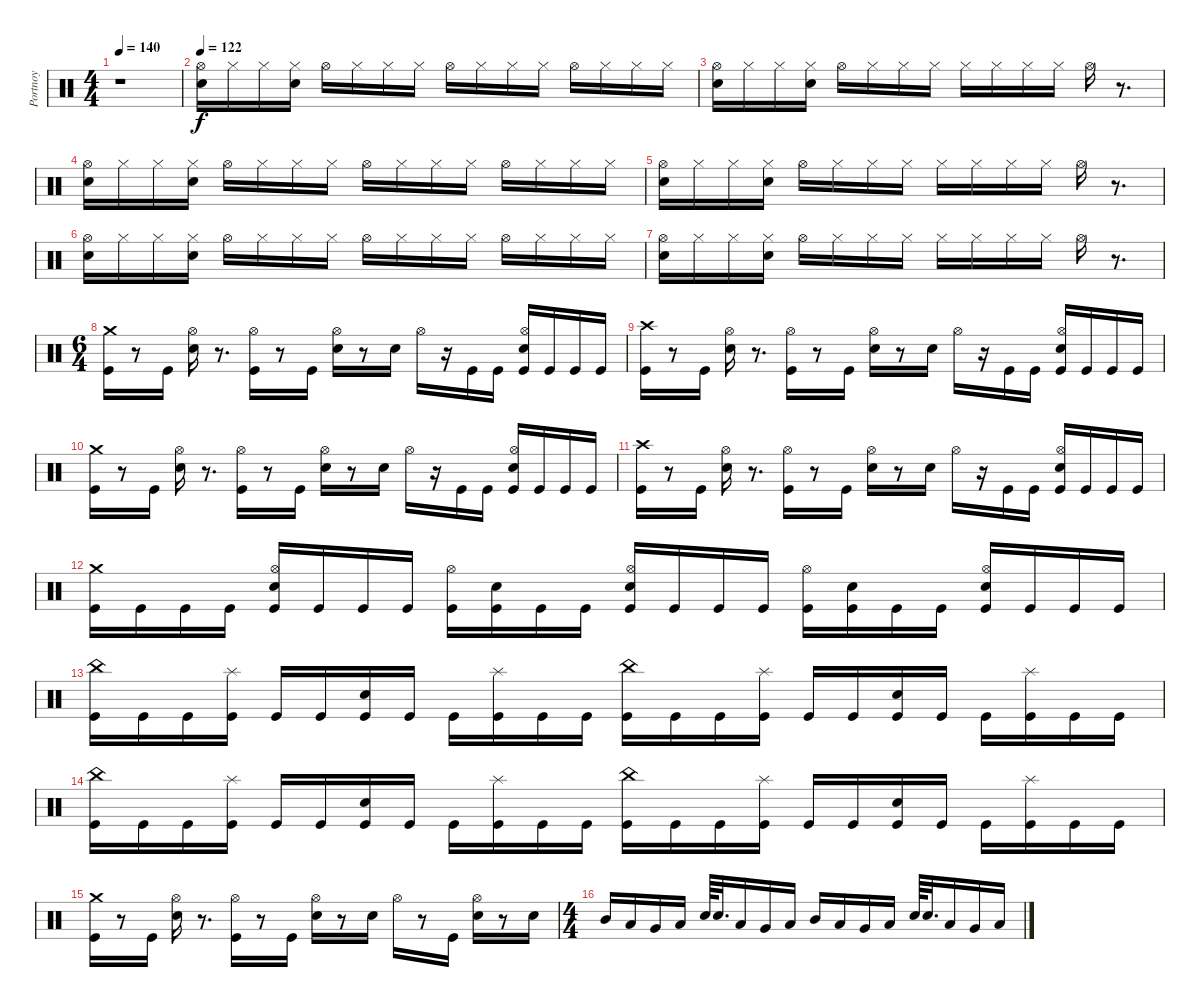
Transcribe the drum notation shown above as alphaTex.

\track ("Portnoy" "Portnoy") {instrument percussion}
\staff {score}
\articulation defaults
\ts (4 4)
\tempo 140
\clef neutral
\ks c
r.1{dy f} |
\tempo 122
("Metronome (bell)" "Hi-Hat (open)").16 "Hi-Hat (closed)".16 "Hi-Hat (closed)".16 ("Hi-Hat (closed)" "Metronome (bell)").16 "Hi-Hat (open)".16 "Hi-Hat (closed)".16 "Hi-Hat (closed)".16 "Hi-Hat (closed)".16 "Hi-Hat (open)".16 "Hi-Hat (closed)".16 "Hi-Hat (closed)".16 "Hi-Hat (closed)".16 "Hi-Hat (open)".16 "Hi-Hat (closed)".16 "Hi-Hat (closed)".16 "Hi-Hat (closed)".16 |
("Hi-Hat (open)" "Metronome (bell)").16 "Hi-Hat (closed)".16 "Hi-Hat (closed)".16 ("Hi-Hat (closed)" "Metronome (bell)").16 "Hi-Hat (open)".16 "Hi-Hat (closed)".16 "Hi-Hat (closed)".16 "Hi-Hat (closed)".16 "Hi-Hat (closed)".16 "Hi-Hat (closed)".16 "Hi-Hat (closed)".16 "Hi-Hat (closed)".16 "Hi-Hat (open)".16 r.8{d} |
("Metronome (bell)" "Hi-Hat (open)").16 "Hi-Hat (closed)".16 "Hi-Hat (closed)".16 ("Hi-Hat (closed)" "Metronome (bell)").16 "Hi-Hat (open)".16 "Hi-Hat (closed)".16 "Hi-Hat (closed)".16 "Hi-Hat (closed)".16 "Hi-Hat (open)".16 "Hi-Hat (closed)".16 "Hi-Hat (closed)".16 "Hi-Hat (closed)".16 "Hi-Hat (open)".16 "Hi-Hat (closed)".16 "Hi-Hat (closed)".16 "Hi-Hat (closed)".16 |
("Hi-Hat (open)" "Metronome (bell)").16 "Hi-Hat (closed)".16 "Hi-Hat (closed)".16 ("Hi-Hat (closed)" "Metronome (bell)").16 "Hi-Hat (open)".16 "Hi-Hat (closed)".16 "Hi-Hat (closed)".16 "Hi-Hat (closed)".16 "Hi-Hat (closed)".16 "Hi-Hat (closed)".16 "Hi-Hat (closed)".16 "Hi-Hat (closed)".16 "Hi-Hat (open)".16 r.8{d} |
("Hi-Hat (open)" "Metronome (bell)").16 "Hi-Hat (closed)".16 "Hi-Hat (closed)".16 ("Hi-Hat (closed)" "Metronome (bell)").16 "Hi-Hat (open)".16 "Hi-Hat (closed)".16 "Hi-Hat (closed)".16 "Hi-Hat (closed)".16 "Hi-Hat (open)".16 "Hi-Hat (closed)".16 "Hi-Hat (closed)".16 "Hi-Hat (closed)".16 "Hi-Hat (open)".16 "Hi-Hat (closed)".16 "Hi-Hat (closed)".16 "Hi-Hat (closed)".16 |
("Hi-Hat (open)" "Metronome (bell)").16 "Hi-Hat (closed)".16 "Hi-Hat (closed)".16 ("Hi-Hat (closed)" "Metronome (bell)").16 "Hi-Hat (open)".16 "Hi-Hat (closed)".16 "Hi-Hat (closed)".16 "Hi-Hat (closed)".16 "Hi-Hat (closed)".16 "Hi-Hat (closed)".16 "Hi-Hat (closed)".16 "Hi-Hat (closed)".16 "Hi-Hat (open)".16 r.8{d} |
\ts (6 4)
("Kick (hit)" "Crash medium (hit)").16 r.8 "Kick (hit)".16 ("Metronome (bell)" "Hi-Hat (open)").16 r.8{d} ("Kick (hit)" "Hi-Hat (open)").16 r.8 "Kick (hit)".16 ("Metronome (bell)" "Hi-Hat (open)").16 r.8 "Metronome (bell)".16 "Hi-Hat (open)".16 r.16 "Kick (hit)".16 "Kick (hit)".16 ("Kick (hit)" "Metronome (bell)" "Hi-Hat (open)").16 "Kick (hit)".16 "Kick (hit)".16 "Kick (hit)".16 |
("Kick (hit)" "Crash high (hit)").16 r.8 "Kick (hit)".16 ("Metronome (bell)" "Hi-Hat (open)").16 r.8{d} ("Kick (hit)" "Hi-Hat (open)").16 r.8 "Kick (hit)".16 ("Metronome (bell)" "Hi-Hat (open)").16 r.8 "Metronome (bell)".16 "Hi-Hat (open)".16 r.16 "Kick (hit)".16 "Kick (hit)".16 ("Kick (hit)" "Metronome (bell)" "Hi-Hat (open)").16 "Kick (hit)".16 "Kick (hit)".16 "Kick (hit)".16 |
("Kick (hit)" "Crash medium (hit)").16 r.8 "Kick (hit)".16 ("Metronome (bell)" "Hi-Hat (open)").16 r.8{d} ("Kick (hit)" "Hi-Hat (open)").16 r.8 "Kick (hit)".16 ("Metronome (bell)" "Hi-Hat (open)").16 r.8 "Metronome (bell)".16 "Hi-Hat (open)".16 r.16 "Kick (hit)".16 "Kick (hit)".16 ("Kick (hit)" "Metronome (bell)" "Hi-Hat (open)").16 "Kick (hit)".16 "Kick (hit)".16 "Kick (hit)".16 |
("Kick (hit)" "Crash high (hit)").16 r.8 "Kick (hit)".16 ("Metronome (bell)" "Hi-Hat (open)").16 r.8{d} ("Kick (hit)" "Hi-Hat (open)").16 r.8 "Kick (hit)".16 ("Metronome (bell)" "Hi-Hat (open)").16 r.8 "Metronome (bell)".16 "Hi-Hat (open)".16 r.16 "Kick (hit)".16 "Kick (hit)".16 ("Kick (hit)" "Metronome (bell)" "Hi-Hat (open)").16 "Kick (hit)".16 "Kick (hit)".16 "Kick (hit)".16 |
("Kick (hit)" "Crash medium (hit)").16 "Kick (hit)".16 "Kick (hit)".16 "Kick (hit)".16 ("Metronome (bell)" "Hi-Hat (open)" "Kick (hit)").16 "Kick (hit)".16 "Kick (hit)".16 "Kick (hit)".16 ("Hi-Hat (open)" "Kick (hit)").16 ("Metronome (bell)" "Kick (hit)").16 "Kick (hit)".16 "Kick (hit)".16 ("Metronome (bell)" "Hi-Hat (open)" "Kick (hit)").16 "Kick (hit)".16 "Kick (hit)".16 "Kick (hit)".16 ("Hi-Hat (open)" "Kick (hit)").16 ("Metronome (bell)" "Kick (hit)").16 "Kick (hit)".16 "Kick (hit)".16 ("Metronome (bell)" "Hi-Hat (open)" "Kick (hit)").16 "Kick (hit)".16 "Kick (hit)".16 "Kick (hit)".16 |
("China (hit)" "Kick (hit)").16 "Kick (hit)".16 "Kick (hit)".16 ("Splash (hit)" "Kick (hit)").16 "Kick (hit)".16 "Kick (hit)".16 ("Metronome (bell)" "Kick (hit)").16 "Kick (hit)".16 "Kick (hit)".16 ("Splash (hit)" "Kick (hit)").16 "Kick (hit)".16 "Kick (hit)".16 ("China (hit)" "Kick (hit)").16 "Kick (hit)".16 "Kick (hit)".16 ("Splash (hit)" "Kick (hit)").16 "Kick (hit)".16 "Kick (hit)".16 ("Metronome (bell)" "Kick (hit)").16 "Kick (hit)".16 "Kick (hit)".16 ("Splash (hit)" "Kick (hit)").16 "Kick (hit)".16 "Kick (hit)".16 |
("China (hit)" "Kick (hit)").16 "Kick (hit)".16 "Kick (hit)".16 ("Splash (hit)" "Kick (hit)").16 "Kick (hit)".16 "Kick (hit)".16 ("Metronome (bell)" "Kick (hit)").16 "Kick (hit)".16 "Kick (hit)".16 ("Splash (hit)" "Kick (hit)").16 "Kick (hit)".16 "Kick (hit)".16 ("China (hit)" "Kick (hit)").16 "Kick (hit)".16 "Kick (hit)".16 ("Splash (hit)" "Kick (hit)").16 "Kick (hit)".16 "Kick (hit)".16 ("Metronome (bell)" "Kick (hit)").16 "Kick (hit)".16 "Kick (hit)".16 ("Splash (hit)" "Kick (hit)").16 "Kick (hit)".16 "Kick (hit)".16 |
("Kick (hit)" "Crash medium (hit)").16 r.8 "Kick (hit)".16 ("Metronome (bell)" "Hi-Hat (open)").16 r.8{d} ("Kick (hit)" "Hi-Hat (open)").16 r.8 "Kick (hit)".16 ("Metronome (bell)" "Hi-Hat (open)").16 r.8 "Metronome (bell)".16 "Hi-Hat (open)".16 r.8 "Kick (hit)".16 ("Metronome (bell)" "Hi-Hat (open)").16 r.8 "Metronome (bell)".16 |
\ts (4 4)
"Mid Tom (hit)".16 "Low Tom (hit)".16 "Very Low Tom (hit)".16 "Low Floor Tom (hit)".16 "Metronome (bell)".64 "Metronome (bell)".32{d} "Low Tom (hit)".16 "Very Low Tom (hit)".16 "Low Floor Tom (hit)".16 "Mid Tom (hit)".16 "Low Tom (hit)".16 "Very Low Tom (hit)".16 "Low Floor Tom (hit)".16 "Metronome (bell)".64 "Metronome (bell)".32{d} "Low Tom (hit)".16 "Very Low Tom (hit)".16 "Low Floor Tom (hit)".16
